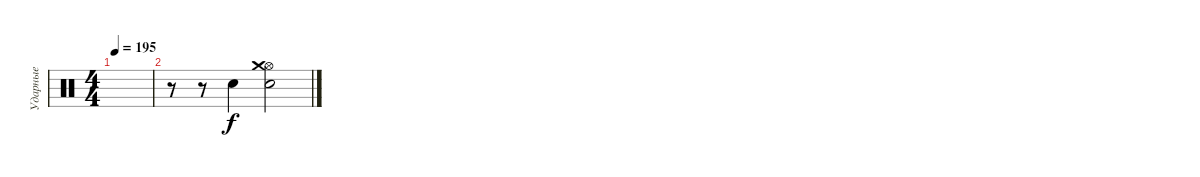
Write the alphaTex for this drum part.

\track ("Ударные" "Ударные") {instrument percussion}
\staff {score}
\articulation defaults
\ts (4 4)
\tempo 195
\clef neutral
\ks c
|
r.8 r.8 "Electric Snare (hit)".4 ("Electric Snare (hit)" "Hi-Hat (open)" "Crash medium (hit)").2
